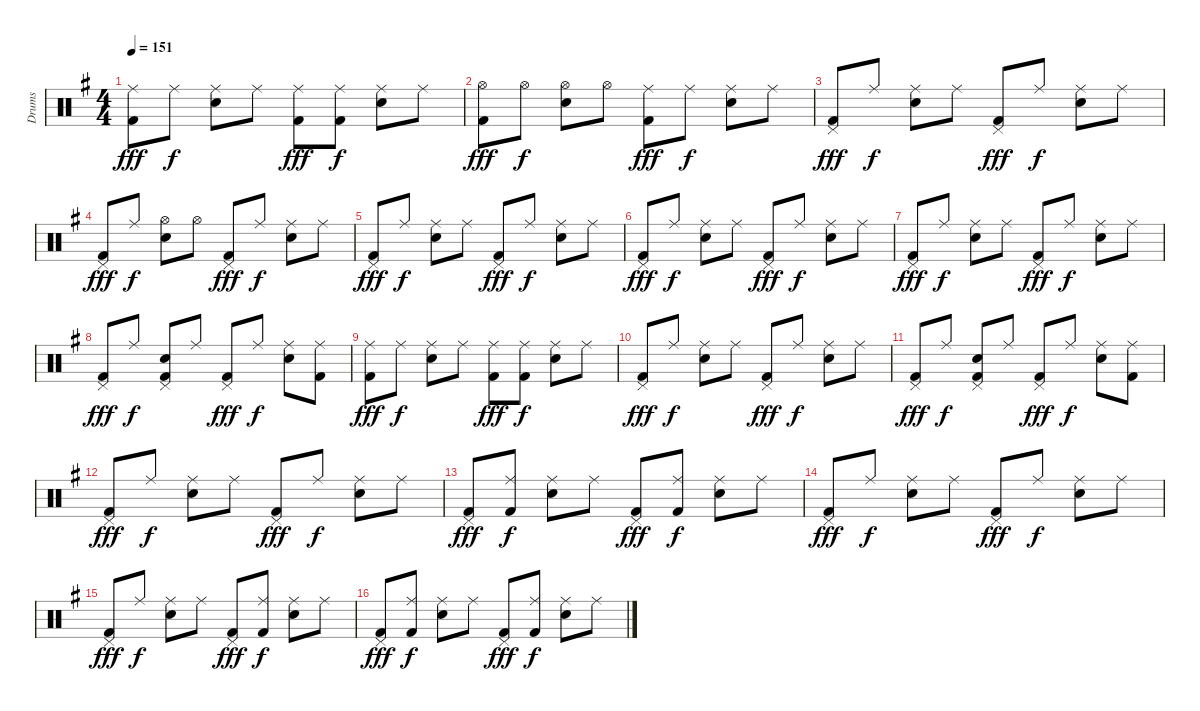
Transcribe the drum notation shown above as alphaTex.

\track ("Drums " "Drums ") {instrument percussion}
\staff {score}
\articulation defaults
\ts (4 4)
\tempo 151
\clef neutral
\ks eminor
("Ride (middle)" "Kick (hit) 2").8{dy fff} "Ride (middle)".8{dy f} ("Snare (hit) 2" "Ride (middle)").8 "Ride (middle)".8 ("Kick (hit) 2" "Ride (middle)").8{dy fff} ("Kick (hit) 2" "Ride (middle)").8{dy f} ("Snare (hit) 2" "Ride (middle)").8 "Ride (middle)".8 |
("Kick (hit) 2" "Hi-Hat (open)").8{dy fff} "Hi-Hat (open)".8{dy f} ("Hi-Hat (open)" "Snare (hit) 2").8 "Hi-Hat (open)".8 ("Kick (hit) 2" "Ride (middle)").8{dy fff} "Ride (middle)".8{dy f} ("Snare (hit) 2" "Ride (middle)").8 "Ride (middle)".8 |
("Pedal Hi-Hat (hit)" "Kick (hit) 2").8{dy fff} "Ride (middle)".8{dy f} ("Snare (hit) 2" "Ride (middle)").8 "Ride (middle)".8 ("Pedal Hi-Hat (hit)" "Kick (hit) 2").8{dy fff} "Ride (middle)".8{dy f} ("Snare (hit) 2" "Ride (middle)").8 "Ride (middle)".8 |
("Pedal Hi-Hat (hit)" "Kick (hit) 2").8{dy fff} "Ride (middle)".8{dy f} ("Hi-Hat (open)" "Snare (hit) 2").8 "Hi-Hat (open)".8 ("Pedal Hi-Hat (hit)" "Kick (hit) 2").8{dy fff} "Ride (middle)".8{dy f} ("Snare (hit) 2" "Ride (middle)").8 "Ride (middle)".8 |
("Pedal Hi-Hat (hit)" "Kick (hit) 2").8{dy fff} "Ride (middle)".8{dy f} ("Snare (hit) 2" "Ride (middle)").8 "Ride (middle)".8 ("Pedal Hi-Hat (hit)" "Kick (hit) 2").8{dy fff} "Ride (middle)".8{dy f} ("Snare (hit) 2" "Ride (middle)").8 "Ride (middle)".8 |
("Pedal Hi-Hat (hit)" "Kick (hit) 2").8{dy fff} "Ride (middle)".8{dy f} ("Snare (hit) 2" "Ride (middle)").8 "Ride (middle)".8 ("Pedal Hi-Hat (hit)" "Kick (hit) 2").8{dy fff} "Ride (middle)".8{dy f} ("Snare (hit) 2" "Ride (middle)").8 "Ride (middle)".8 |
("Pedal Hi-Hat (hit)" "Kick (hit) 2").8{dy fff} "Ride (middle)".8{dy f} ("Snare (hit) 2" "Ride (middle)").8 "Ride (middle)".8 ("Pedal Hi-Hat (hit)" "Kick (hit) 2").8{dy fff} "Ride (middle)".8{dy f} ("Snare (hit) 2" "Ride (middle)").8 "Ride (middle)".8 |
("Pedal Hi-Hat (hit)" "Kick (hit) 2").8{dy fff} "Ride (middle)".8{dy f} ("Pedal Hi-Hat (hit)" "Snare (hit) 2" "Kick (hit) 2").8 "Ride (middle)".8 ("Pedal Hi-Hat (hit)" "Kick (hit) 2").8{dy fff} "Ride (middle)".8{dy f} ("Ride (middle)" "Snare (hit) 2").8 ("Kick (hit) 2" "Ride (middle)").8 |
("Ride (middle)" "Kick (hit) 2").8{dy fff} "Ride (middle)".8{dy f} ("Snare (hit) 2" "Ride (middle)").8 "Ride (middle)".8 ("Kick (hit) 2" "Ride (middle)").8{dy fff} ("Kick (hit) 2" "Ride (middle)").8{dy f} ("Snare (hit) 2" "Ride (middle)").8 "Ride (middle)".8 |
("Pedal Hi-Hat (hit)" "Kick (hit) 2").8{dy fff} "Ride (middle)".8{dy f} ("Snare (hit) 2" "Ride (middle)").8 "Ride (middle)".8 ("Pedal Hi-Hat (hit)" "Kick (hit) 2").8{dy fff} "Ride (middle)".8{dy f} ("Snare (hit) 2" "Ride (middle)").8 "Ride (middle)".8 |
("Pedal Hi-Hat (hit)" "Kick (hit) 2").8{dy fff} "Ride (middle)".8{dy f} ("Pedal Hi-Hat (hit)" "Snare (hit) 2" "Kick (hit) 2").8 "Ride (middle)".8 ("Pedal Hi-Hat (hit)" "Kick (hit) 2").8{dy fff} "Ride (middle)".8{dy f} ("Ride (middle)" "Snare (hit) 2").8 ("Kick (hit) 2" "Ride (middle)").8 |
("Pedal Hi-Hat (hit)" "Kick (hit) 2").8{dy fff} "Ride (middle)".8{dy f} ("Snare (hit) 2" "Ride (middle)").8 "Ride (middle)".8 ("Pedal Hi-Hat (hit)" "Kick (hit) 2").8{dy fff} "Ride (middle)".8{dy f} ("Snare (hit) 2" "Ride (middle)").8 "Ride (middle)".8 |
("Pedal Hi-Hat (hit)" "Kick (hit) 2").8{dy fff} ("Kick (hit) 2" "Ride (middle)").8{dy f} ("Snare (hit) 2" "Ride (middle)").8 "Ride (middle)".8 ("Pedal Hi-Hat (hit)" "Kick (hit) 2").8{dy fff} ("Kick (hit) 2" "Ride (middle)").8{dy f} ("Snare (hit) 2" "Ride (middle)").8 "Ride (middle)".8 |
("Pedal Hi-Hat (hit)" "Kick (hit) 2").8{dy fff} "Ride (middle)".8{dy f} ("Snare (hit) 2" "Ride (middle)").8 "Ride (middle)".8 ("Pedal Hi-Hat (hit)" "Kick (hit) 2").8{dy fff} "Ride (middle)".8{dy f} ("Snare (hit) 2" "Ride (middle)").8 "Ride (middle)".8 |
("Pedal Hi-Hat (hit)" "Kick (hit) 2").8{dy fff} "Ride (middle)".8{dy f} ("Snare (hit) 2" "Ride (middle)").8 "Ride (middle)".8 ("Pedal Hi-Hat (hit)" "Kick (hit) 2").8{dy fff} ("Kick (hit) 2" "Ride (middle)").8{dy f} ("Snare (hit) 2" "Ride (middle)").8 "Ride (middle)".8 |
("Pedal Hi-Hat (hit)" "Kick (hit) 2").8{dy fff} ("Kick (hit) 2" "Ride (middle)").8{dy f} ("Snare (hit) 2" "Ride (middle)").8 "Ride (middle)".8 ("Pedal Hi-Hat (hit)" "Kick (hit) 2").8{dy fff} ("Kick (hit) 2" "Ride (middle)").8{dy f} ("Snare (hit) 2" "Ride (middle)").8 "Ride (middle)".8
